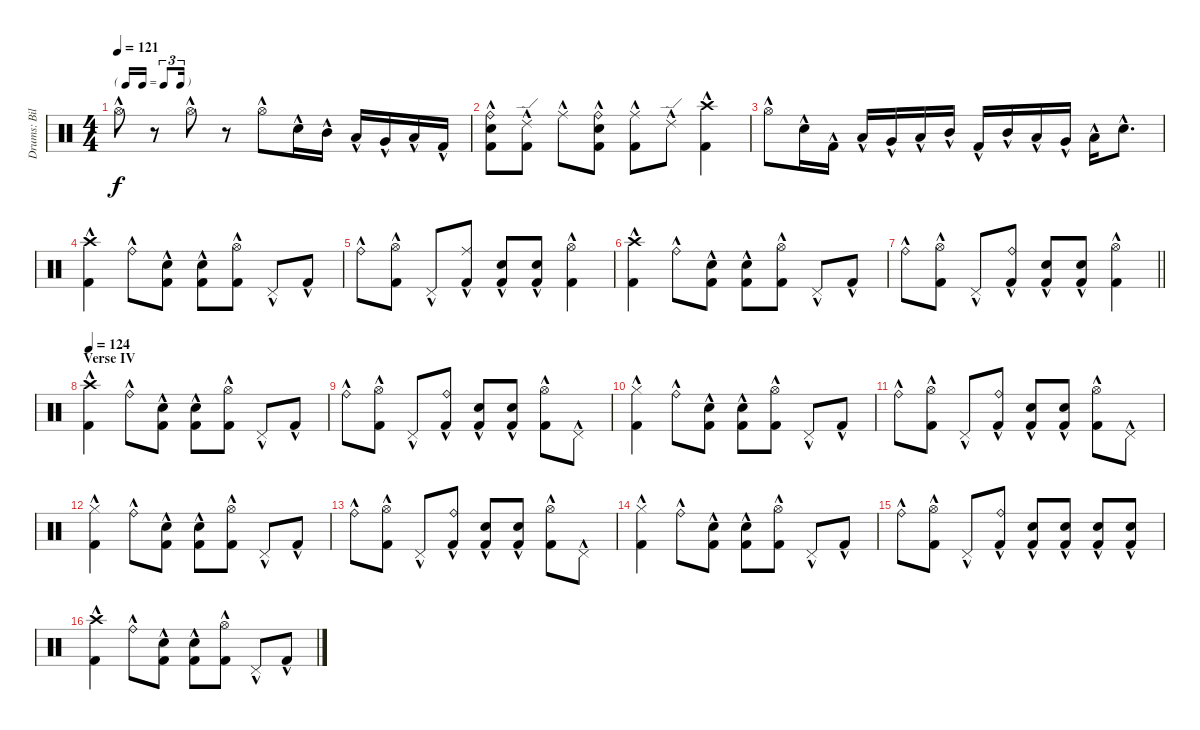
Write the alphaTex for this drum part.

\track ("Drums: Bill" "Drums: Bil") {instrument percussion}
\staff {score}
\articulation defaults
\ts (4 4)
\tf triplet16th
\tempo 121
\clef neutral
\ks c "Hi-Hat (open)"{hac}.8{dy f}
r.8 "Hi-Hat (open)"{hac}.8 r.8 "Hi-Hat (open)"{hac}.8 "Snare (hit) 2"{hac}.16 "Mid Tom (hit)"{hac}.16 "Low Tom (hit)"{hac}.16 "Very Low Tom (hit)"{hac}.16 "Low Floor Tom (hit)"{hac}.16 "Kick (hit) 2"{hac}.16 |
("Ride (bell)"{hac} "Snare (hit) 2"{hac} "Kick (hit) 2"{hac}).8 ("Ride (edge) 2"{hac} "Kick (hit) 2"{hac}).8 "Ride (middle)"{hac}.8 ("Ride (bell)"{hac} "Snare (hit) 2"{hac} "Kick (hit) 2"{hac}).8 ("Ride (middle)"{hac} "Kick (hit) 2"{hac}).8 "Ride (edge) 2"{hac}.8 ("Crash high (hit)"{hac} "Kick (hit) 2"{hac}).4 |
"Hi-Hat (open)"{hac}.8 "Snare (hit) 2"{hac}.16 "Kick (hit) 2"{hac}.16 "Low Floor Tom (hit)"{hac}.16 "Very Low Tom (hit)"{hac}.16 "Low Tom (hit)"{hac}.16 "Mid Tom (hit)"{hac}.16 "Kick (hit) 2"{hac}.16 "Mid Tom (hit)"{hac}.16 "Low Tom (hit)"{hac}.16 "Very Low Tom (hit)"{hac}.16 "Low Floor Tom (hit)"{hac}.16 "Snare (hit) 2"{hac}.8{d} |
("Crash high (hit)"{hac} "Kick (hit) 2"{hac}).4 "Ride (bell)"{hac}.8 ("Electric Snare (hit)"{hac} "Kick (hit) 2"{hac}).8 ("Electric Snare (hit)"{hac} "Kick (hit) 2"{hac}).8 ("Hi-Hat (open)"{hac} "Kick (hit) 2"{hac}).8 "Pedal Hi-Hat (hit)"{hac}.8 "Kick (hit) 2"{hac}.8 |
"Ride (bell)"{hac}.8 ("Hi-Hat (open)"{hac} "Kick (hit) 2"{hac}).8 "Pedal Hi-Hat (hit)"{hac}.8 ("Ride (middle)"{hac} "Kick (hit) 2"{hac}).8 ("Electric Snare (hit)"{hac} "Kick (hit) 2"{hac}).8 ("Electric Snare (hit)"{hac} "Kick (hit) 2"{hac}).8 ("Hi-Hat (open)"{hac} "Kick (hit) 2"{hac}).4 |
("Crash high (hit)"{hac} "Kick (hit) 2"{hac}).4 "Ride (bell)"{hac}.8 ("Electric Snare (hit)"{hac} "Kick (hit) 2"{hac}).8 ("Electric Snare (hit)"{hac} "Kick (hit) 2"{hac}).8 ("Hi-Hat (open)"{hac} "Kick (hit) 2"{hac}).8 "Pedal Hi-Hat (hit)"{hac}.8 "Kick (hit) 2"{hac}.8 |
\barLineRight lightlight "Ride (bell)"{hac}.8
("Hi-Hat (open)"{hac} "Kick (hit) 2"{hac}).8 "Pedal Hi-Hat (hit)"{hac}.8 ("Ride (bell)"{hac} "Kick (hit) 2"{hac}).8 ("Electric Snare (hit)"{hac} "Kick (hit) 2"{hac}).8 ("Electric Snare (hit)"{hac} "Kick (hit) 2"{hac}).8 ("Hi-Hat (open)"{hac} "Kick (hit) 2"{hac}).4 |
\section ("" "Verse IV")
\tempo 124
("Crash high (hit)"{hac} "Kick (hit) 2"{hac}).4 "Ride (bell)"{hac}.8 ("Electric Snare (hit)"{hac} "Kick (hit) 2"{hac}).8 ("Electric Snare (hit)"{hac} "Kick (hit) 2"{hac}).8 ("Hi-Hat (open)"{hac} "Kick (hit) 2"{hac}).8 "Pedal Hi-Hat (hit)"{hac}.8 "Kick (hit) 2"{hac}.8 |
"Ride (bell)"{hac}.8 ("Hi-Hat (open)"{hac} "Kick (hit) 2"{hac}).8 "Pedal Hi-Hat (hit)"{hac}.8 ("Ride (bell)"{hac} "Kick (hit) 2"{hac}).8 ("Electric Snare (hit)"{hac} "Kick (hit) 2"{hac}).8 ("Electric Snare (hit)"{hac} "Kick (hit) 2"{hac}).8 ("Hi-Hat (open)"{hac} "Kick (hit) 2"{hac}).8 "Pedal Hi-Hat (hit)"{hac}.8 |
("Hi-Hat (closed)"{hac} "Kick (hit) 2"{hac}).4 "Ride (bell)"{hac}.8 ("Electric Snare (hit)"{hac} "Kick (hit) 2"{hac}).8 ("Electric Snare (hit)"{hac} "Kick (hit) 2"{hac}).8 ("Hi-Hat (open)"{hac} "Kick (hit) 2"{hac}).8 "Pedal Hi-Hat (hit)"{hac}.8 "Kick (hit) 2"{hac}.8 |
"Ride (bell)"{hac}.8 ("Hi-Hat (open)"{hac} "Kick (hit) 2"{hac}).8 "Pedal Hi-Hat (hit)"{hac}.8 ("Ride (bell)"{hac} "Kick (hit) 2"{hac}).8 ("Electric Snare (hit)"{hac} "Kick (hit) 2"{hac}).8 ("Electric Snare (hit)"{hac} "Kick (hit) 2"{hac}).8 ("Hi-Hat (open)"{hac} "Kick (hit) 2"{hac}).8 "Pedal Hi-Hat (hit)"{hac}.8 |
("Hi-Hat (closed)"{hac} "Kick (hit) 2"{hac}).4 "Ride (bell)"{hac}.8 ("Electric Snare (hit)"{hac} "Kick (hit) 2"{hac}).8 ("Electric Snare (hit)"{hac} "Kick (hit) 2"{hac}).8 ("Hi-Hat (open)"{hac} "Kick (hit) 2"{hac}).8 "Pedal Hi-Hat (hit)"{hac}.8 "Kick (hit) 2"{hac}.8 |
"Ride (bell)"{hac}.8 ("Hi-Hat (open)"{hac} "Kick (hit) 2"{hac}).8 "Pedal Hi-Hat (hit)"{hac}.8 ("Ride (bell)"{hac} "Kick (hit) 2"{hac}).8 ("Electric Snare (hit)"{hac} "Kick (hit) 2"{hac}).8 ("Electric Snare (hit)"{hac} "Kick (hit) 2"{hac}).8 ("Hi-Hat (open)"{hac} "Kick (hit) 2"{hac}).8 "Pedal Hi-Hat (hit)"{hac}.8 |
("Hi-Hat (closed)"{hac} "Kick (hit) 2"{hac}).4 "Ride (bell)"{hac}.8 ("Electric Snare (hit)"{hac} "Kick (hit) 2"{hac}).8 ("Electric Snare (hit)"{hac} "Kick (hit) 2"{hac}).8 ("Hi-Hat (open)"{hac} "Kick (hit) 2"{hac}).8 "Pedal Hi-Hat (hit)"{hac}.8 "Kick (hit) 2"{hac}.8 |
"Ride (bell)"{hac}.8 ("Hi-Hat (open)"{hac} "Kick (hit) 2"{hac}).8 "Pedal Hi-Hat (hit)"{hac}.8 ("Ride (bell)"{hac} "Kick (hit) 2"{hac}).8 ("Electric Snare (hit)"{hac} "Kick (hit) 2"{hac}).8 ("Electric Snare (hit)"{hac} "Kick (hit) 2"{hac}).8 ("Electric Snare (hit)"{hac} "Kick (hit) 2"{hac}).8 ("Electric Snare (hit)"{hac} "Kick (hit) 2"{hac}).8 |
("Crash high (hit)"{hac} "Kick (hit) 2"{hac}).4 "Ride (bell)"{hac}.8 ("Electric Snare (hit)"{hac} "Kick (hit) 2"{hac}).8 ("Electric Snare (hit)"{hac} "Kick (hit) 2"{hac}).8 ("Hi-Hat (open)"{hac} "Kick (hit) 2"{hac}).8 "Pedal Hi-Hat (hit)"{hac}.8 "Kick (hit) 2"{hac}.8
